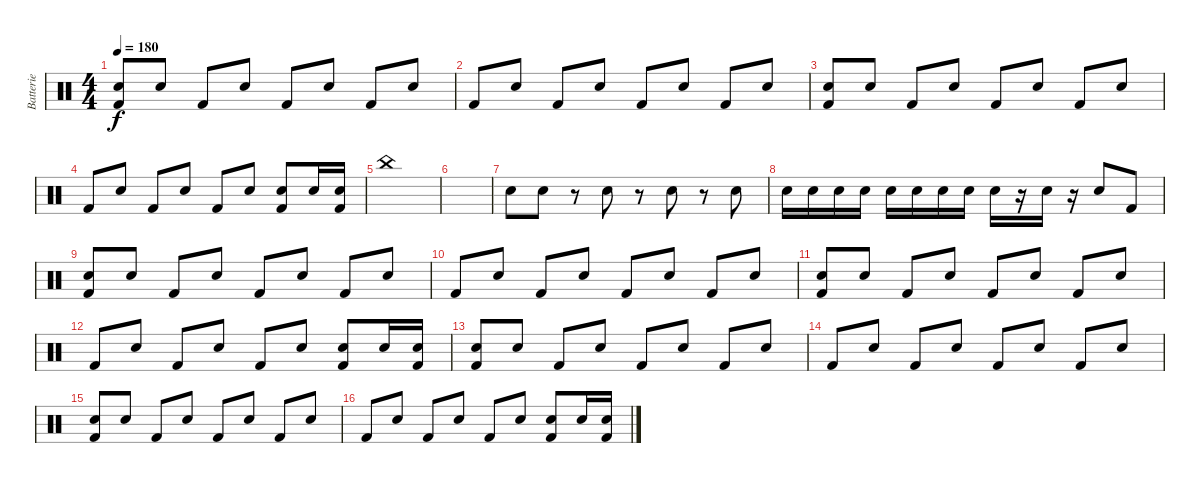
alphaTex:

\track ("Batterie" "Batterie") {instrument percussion}
\staff {score}
\articulation defaults
\ts (4 4)
\tempo 180
\clef neutral
\ks c
("Metronome (bell)" "Kick (hit) 2").8{dy f} "Electric Snare (hit)".8 "Kick (hit) 2".8 "Electric Snare (hit)".8 "Kick (hit) 2".8 "Electric Snare (hit)".8 "Kick (hit) 2".8 "Electric Snare (hit)".8 |
"Kick (hit) 2".8 "Electric Snare (hit)".8 "Kick (hit) 2".8 "Electric Snare (hit)".8 "Kick (hit) 2".8 "Electric Snare (hit)".8 "Kick (hit) 2".8 "Electric Snare (hit)".8 |
("Metronome (bell)" "Kick (hit) 2").8 "Electric Snare (hit)".8 "Kick (hit) 2".8 "Electric Snare (hit)".8 "Kick (hit) 2".8 "Electric Snare (hit)".8 "Kick (hit) 2".8 "Electric Snare (hit)".8 |
"Kick (hit) 2".8 "Electric Snare (hit)".8 "Kick (hit) 2".8 "Electric Snare (hit)".8 "Kick (hit) 2".8 "Electric Snare (hit)".8 ("Electric Snare (hit)" "Kick (hit) 2").8 "Electric Snare (hit)".16 ("Electric Snare (hit)" "Kick (hit) 2").16 |
"China (hit)".1 |
|
"Metronome (bell)".8 "Metronome (bell)".8 r.8 "Metronome (bell)".8 r.8 "Metronome (bell)".8 r.8 "Metronome (bell)".8 |
"Electric Snare (hit)".16 "Electric Snare (hit)".16 "Electric Snare (hit)".16 "Electric Snare (hit)".16 "Electric Snare (hit)".16 "Electric Snare (hit)".16 "Electric Snare (hit)".16 "Electric Snare (hit)".16 "Electric Snare (hit)".16 r.16 "Electric Snare (hit)".16 r.16 "Electric Snare (hit)".8 "Kick (hit) 2".8 |
("Metronome (bell)" "Kick (hit) 2").8 "Electric Snare (hit)".8 "Kick (hit) 2".8 "Electric Snare (hit)".8 "Kick (hit) 2".8 "Electric Snare (hit)".8 "Kick (hit) 2".8 "Electric Snare (hit)".8 |
"Kick (hit) 2".8 "Electric Snare (hit)".8 "Kick (hit) 2".8 "Electric Snare (hit)".8 "Kick (hit) 2".8 "Electric Snare (hit)".8 "Kick (hit) 2".8 "Electric Snare (hit)".8 |
("Metronome (bell)" "Kick (hit) 2").8 "Electric Snare (hit)".8 "Kick (hit) 2".8 "Electric Snare (hit)".8 "Kick (hit) 2".8 "Electric Snare (hit)".8 "Kick (hit) 2".8 "Electric Snare (hit)".8 |
"Kick (hit) 2".8 "Electric Snare (hit)".8 "Kick (hit) 2".8 "Electric Snare (hit)".8 "Kick (hit) 2".8 "Electric Snare (hit)".8 ("Electric Snare (hit)" "Kick (hit) 2").8 "Electric Snare (hit)".16 ("Electric Snare (hit)" "Kick (hit) 2").16 |
("Metronome (bell)" "Kick (hit) 2").8 "Electric Snare (hit)".8 "Kick (hit) 2".8 "Electric Snare (hit)".8 "Kick (hit) 2".8 "Electric Snare (hit)".8 "Kick (hit) 2".8 "Electric Snare (hit)".8 |
"Kick (hit) 2".8 "Electric Snare (hit)".8 "Kick (hit) 2".8 "Electric Snare (hit)".8 "Kick (hit) 2".8 "Electric Snare (hit)".8 "Kick (hit) 2".8 "Electric Snare (hit)".8 |
("Metronome (bell)" "Kick (hit) 2").8 "Electric Snare (hit)".8 "Kick (hit) 2".8 "Electric Snare (hit)".8 "Kick (hit) 2".8 "Electric Snare (hit)".8 "Kick (hit) 2".8 "Electric Snare (hit)".8 |
"Kick (hit) 2".8 "Electric Snare (hit)".8 "Kick (hit) 2".8 "Electric Snare (hit)".8 "Kick (hit) 2".8 "Electric Snare (hit)".8 ("Electric Snare (hit)" "Kick (hit) 2").8 "Electric Snare (hit)".16 ("Electric Snare (hit)" "Kick (hit) 2").16
